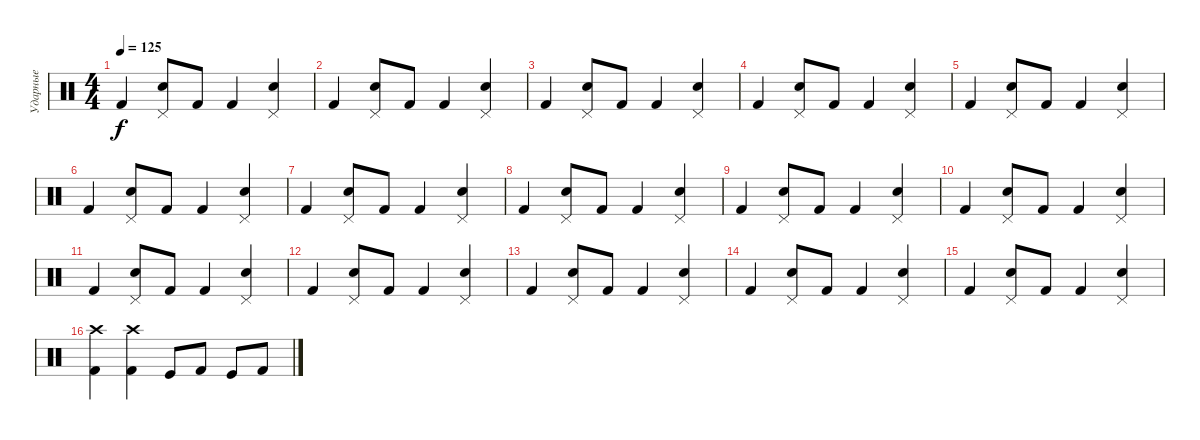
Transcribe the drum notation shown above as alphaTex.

\track ("Ударные" "Ударные") {instrument percussion}
\staff {score}
\articulation defaults
\ts (4 4)
\tempo 125
\clef neutral
\ks c "Kick (hit) 2".4{dy f}
("Snare (hit) 2" "Pedal Hi-Hat (hit)").8 "Kick (hit) 2".8 "Kick (hit) 2".4 ("Snare (hit) 2" "Pedal Hi-Hat (hit)").4 |
"Kick (hit) 2".4 ("Snare (hit) 2" "Pedal Hi-Hat (hit)").8 "Kick (hit) 2".8 "Kick (hit) 2".4 ("Snare (hit) 2" "Pedal Hi-Hat (hit)").4 |
"Kick (hit) 2".4 ("Snare (hit) 2" "Pedal Hi-Hat (hit)").8 "Kick (hit) 2".8 "Kick (hit) 2".4 ("Snare (hit) 2" "Pedal Hi-Hat (hit)").4 |
"Kick (hit) 2".4 ("Snare (hit) 2" "Pedal Hi-Hat (hit)").8 "Kick (hit) 2".8 "Kick (hit) 2".4 ("Snare (hit) 2" "Pedal Hi-Hat (hit)").4 |
"Kick (hit) 2".4 ("Snare (hit) 2" "Pedal Hi-Hat (hit)").8 "Kick (hit) 2".8 "Kick (hit) 2".4 ("Snare (hit) 2" "Pedal Hi-Hat (hit)").4 |
"Kick (hit) 2".4 ("Snare (hit) 2" "Pedal Hi-Hat (hit)").8 "Kick (hit) 2".8 "Kick (hit) 2".4 ("Snare (hit) 2" "Pedal Hi-Hat (hit)").4 |
"Kick (hit) 2".4 ("Snare (hit) 2" "Pedal Hi-Hat (hit)").8 "Kick (hit) 2".8 "Kick (hit) 2".4 ("Snare (hit) 2" "Pedal Hi-Hat (hit)").4 |
"Kick (hit) 2".4 ("Snare (hit) 2" "Pedal Hi-Hat (hit)").8 "Kick (hit) 2".8 "Kick (hit) 2".4 ("Snare (hit) 2" "Pedal Hi-Hat (hit)").4 |
"Kick (hit) 2".4 ("Snare (hit) 2" "Pedal Hi-Hat (hit)").8 "Kick (hit) 2".8 "Kick (hit) 2".4 ("Snare (hit) 2" "Pedal Hi-Hat (hit)").4 |
"Kick (hit) 2".4 ("Snare (hit) 2" "Pedal Hi-Hat (hit)").8 "Kick (hit) 2".8 "Kick (hit) 2".4 ("Snare (hit) 2" "Pedal Hi-Hat (hit)").4 |
"Kick (hit) 2".4 ("Snare (hit) 2" "Pedal Hi-Hat (hit)").8 "Kick (hit) 2".8 "Kick (hit) 2".4 ("Snare (hit) 2" "Pedal Hi-Hat (hit)").4 |
"Kick (hit) 2".4 ("Snare (hit) 2" "Pedal Hi-Hat (hit)").8 "Kick (hit) 2".8 "Kick (hit) 2".4 ("Snare (hit) 2" "Pedal Hi-Hat (hit)").4 |
"Kick (hit) 2".4 ("Snare (hit) 2" "Pedal Hi-Hat (hit)").8 "Kick (hit) 2".8 "Kick (hit) 2".4 ("Snare (hit) 2" "Pedal Hi-Hat (hit)").4 |
"Kick (hit) 2".4 ("Snare (hit) 2" "Pedal Hi-Hat (hit)").8 "Kick (hit) 2".8 "Kick (hit) 2".4 ("Snare (hit) 2" "Pedal Hi-Hat (hit)").4 |
"Kick (hit) 2".4 ("Snare (hit) 2" "Pedal Hi-Hat (hit)").8 "Kick (hit) 2".8 "Kick (hit) 2".4 ("Snare (hit) 2" "Pedal Hi-Hat (hit)").4 |
("Kick (hit) 2" "Crash high (hit)").4 ("Kick (hit) 2" "Crash high (hit)").4 "Kick (hit)".8 "Kick (hit) 2".8 "Kick (hit)".8 "Kick (hit) 2".8
